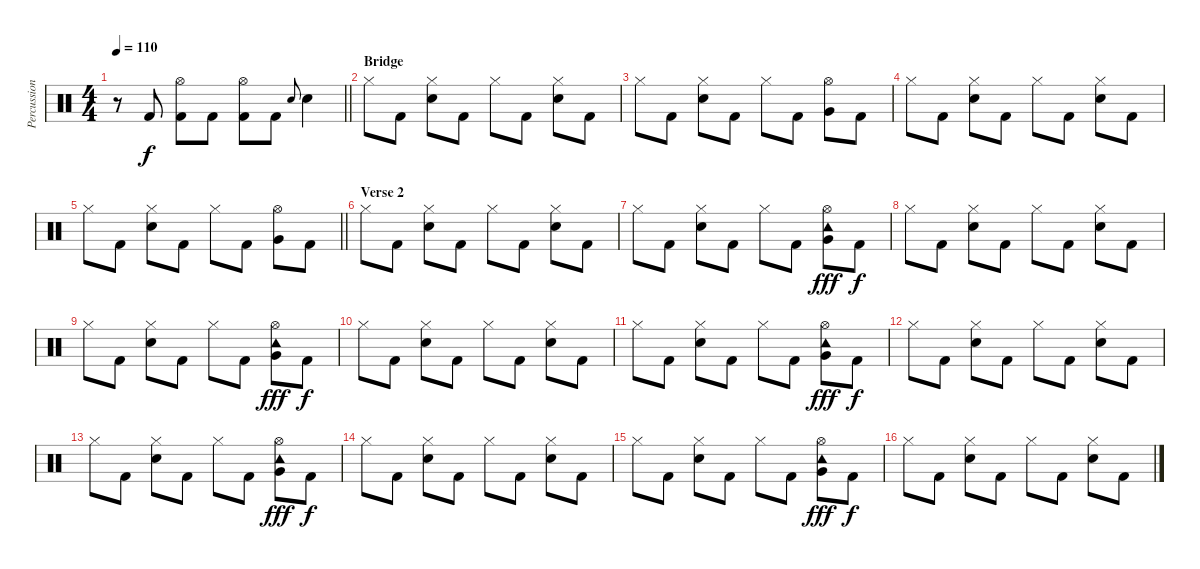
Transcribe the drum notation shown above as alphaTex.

\track ("Percussion" "Percussion") {instrument percussion}
\staff {score}
\articulation defaults
\ts (4 4)
\tempo 110
\clef neutral
\barLineRight lightlight
\ks aminor
r.8{dy f} "Kick (hit) 2".8 ("Hi-Hat (open)" "Kick (hit) 2").8 "Kick (hit) 2".8 ("Hi-Hat (open)" "Kick (hit) 2").8 "Kick (hit) 2".8 "Electric Snare (hit)".8{gr onbeat} "Electric Snare (hit)".4 |
\section ("" "Bridge")
"Hi-Hat (closed)".8 "Kick (hit) 2".8 ("Hi-Hat (closed)" "Electric Snare (hit)").8 "Kick (hit) 2".8 "Hi-Hat (closed)".8 "Kick (hit) 2".8 ("Hi-Hat (closed)" "Electric Snare (hit)").8 "Kick (hit) 2".8 |
"Hi-Hat (closed)".8 "Kick (hit) 2".8 ("Hi-Hat (closed)" "Electric Snare (hit)").8 "Kick (hit) 2".8 "Hi-Hat (closed)".8 "Kick (hit) 2".8 ("Hi-Hat (open)" "Very Low Tom (hit)").8 "Kick (hit) 2".8 |
"Hi-Hat (closed)".8 "Kick (hit) 2".8 ("Hi-Hat (closed)" "Electric Snare (hit)").8 "Kick (hit) 2".8 "Hi-Hat (closed)".8 "Kick (hit) 2".8 ("Hi-Hat (closed)" "Electric Snare (hit)").8 "Kick (hit) 2".8 |
\barLineRight lightlight "Hi-Hat (closed)".8 "Kick (hit) 2".8
("Hi-Hat (closed)" "Electric Snare (hit)").8 "Kick (hit) 2".8 "Hi-Hat (closed)".8 "Kick (hit) 2".8 ("Hi-Hat (open)" "Very Low Tom (hit)").8 "Kick (hit) 2".8 |
\section ("" "Verse 2")
"Hi-Hat (closed)".8 "Kick (hit) 2".8 ("Hi-Hat (closed)" "Electric Snare (hit)").8 "Kick (hit) 2".8 "Hi-Hat (closed)".8 "Kick (hit) 2".8 ("Hi-Hat (closed)" "Electric Snare (hit)").8 "Kick (hit) 2".8 |
"Hi-Hat (closed)".8 "Kick (hit) 2".8 ("Hi-Hat (closed)" "Electric Snare (hit)").8 "Kick (hit) 2".8 "Hi-Hat (closed)".8 "Kick (hit) 2".8 ("Tambourine (hit)" "Hi-Hat (open)" "Very Low Tom (hit)").8{dy fff} "Kick (hit) 2".8{dy f} |
"Hi-Hat (closed)".8 "Kick (hit) 2".8 ("Hi-Hat (closed)" "Electric Snare (hit)").8 "Kick (hit) 2".8 "Hi-Hat (closed)".8 "Kick (hit) 2".8 ("Hi-Hat (closed)" "Electric Snare (hit)").8 "Kick (hit) 2".8 |
"Hi-Hat (closed)".8 "Kick (hit) 2".8 ("Hi-Hat (closed)" "Electric Snare (hit)").8 "Kick (hit) 2".8 "Hi-Hat (closed)".8 "Kick (hit) 2".8 ("Tambourine (hit)" "Hi-Hat (open)" "Very Low Tom (hit)").8{dy fff} "Kick (hit) 2".8{dy f} |
"Hi-Hat (closed)".8 "Kick (hit) 2".8 ("Hi-Hat (closed)" "Electric Snare (hit)").8 "Kick (hit) 2".8 "Hi-Hat (closed)".8 "Kick (hit) 2".8 ("Hi-Hat (closed)" "Electric Snare (hit)").8 "Kick (hit) 2".8 |
"Hi-Hat (closed)".8 "Kick (hit) 2".8 ("Hi-Hat (closed)" "Electric Snare (hit)").8 "Kick (hit) 2".8 "Hi-Hat (closed)".8 "Kick (hit) 2".8 ("Tambourine (hit)" "Hi-Hat (open)" "Very Low Tom (hit)").8{dy fff} "Kick (hit) 2".8{dy f} |
"Hi-Hat (closed)".8 "Kick (hit) 2".8 ("Hi-Hat (closed)" "Electric Snare (hit)").8 "Kick (hit) 2".8 "Hi-Hat (closed)".8 "Kick (hit) 2".8 ("Hi-Hat (closed)" "Electric Snare (hit)").8 "Kick (hit) 2".8 |
"Hi-Hat (closed)".8 "Kick (hit) 2".8 ("Hi-Hat (closed)" "Electric Snare (hit)").8 "Kick (hit) 2".8 "Hi-Hat (closed)".8 "Kick (hit) 2".8 ("Tambourine (hit)" "Hi-Hat (open)" "Very Low Tom (hit)").8{dy fff} "Kick (hit) 2".8{dy f} |
"Hi-Hat (closed)".8 "Kick (hit) 2".8 ("Hi-Hat (closed)" "Electric Snare (hit)").8 "Kick (hit) 2".8 "Hi-Hat (closed)".8 "Kick (hit) 2".8 ("Hi-Hat (closed)" "Electric Snare (hit)").8 "Kick (hit) 2".8 |
"Hi-Hat (closed)".8 "Kick (hit) 2".8 ("Hi-Hat (closed)" "Electric Snare (hit)").8 "Kick (hit) 2".8 "Hi-Hat (closed)".8 "Kick (hit) 2".8 ("Tambourine (hit)" "Hi-Hat (open)" "Very Low Tom (hit)").8{dy fff} "Kick (hit) 2".8{dy f} |
"Hi-Hat (closed)".8 "Kick (hit) 2".8 ("Hi-Hat (closed)" "Electric Snare (hit)").8 "Kick (hit) 2".8 "Hi-Hat (closed)".8 "Kick (hit) 2".8 ("Hi-Hat (closed)" "Electric Snare (hit)").8 "Kick (hit) 2".8
